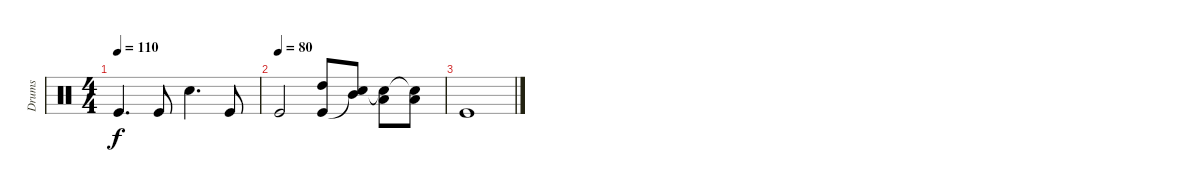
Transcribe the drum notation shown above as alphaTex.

\track ("Drums" "Drums") {instrument percussion}
\staff {score}
\articulation defaults
\ts (4 4)
\tempo 110
\clef neutral
\ks c "Kick (hit)".4{d dy f} "Kick (hit)".8 "Snare (hit) 2".4{d} "Kick (hit)".8
|
\tempo (80)
"Kick (hit)".2 ("High Tom (hit)" "Kick (hit)").8 ("Mid Tom (hit)" "Snare (hit)"{t}).8 ("Low Tom (hit)" "Snare (hit) 2"{t}).8 ("Low Floor Tom (hit)" "Snare (hit) 2"{t}).8 |
"Kick (hit)".1
